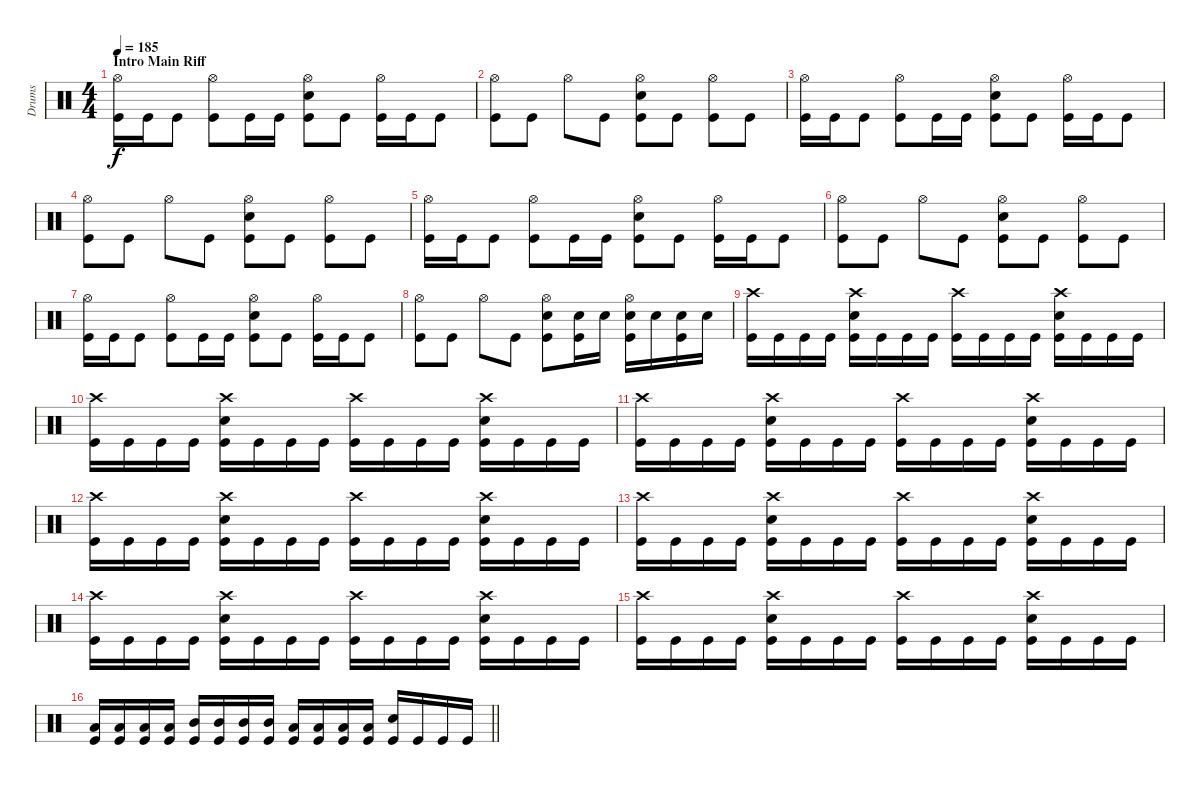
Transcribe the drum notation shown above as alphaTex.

\track ("Drums" "Drums") {instrument percussion}
\staff {score}
\articulation defaults
\ts (4 4)
\section ("" "Intro Main Riff")
\tempo 185
\clef neutral
\ks c
("Hi-Hat (open)" "Kick (hit)").16{dy f} "Kick (hit)".16 "Kick (hit)".8 ("Hi-Hat (open)" "Kick (hit)").8 "Kick (hit)".16 "Kick (hit)".16 ("Hi-Hat (open)" "Snare (hit) 2" "Kick (hit)").8 "Kick (hit)".8 ("Hi-Hat (open)" "Kick (hit)").16 "Kick (hit)".16 "Kick (hit)".8 |
("Hi-Hat (open)" "Kick (hit)").8 "Kick (hit)".8 "Hi-Hat (open)".8 "Kick (hit)".8 ("Hi-Hat (open)" "Snare (hit) 2" "Kick (hit)").8 "Kick (hit)".8 ("Hi-Hat (open)" "Kick (hit)").8 "Kick (hit)".8 |
("Hi-Hat (open)" "Kick (hit)").16 "Kick (hit)".16 "Kick (hit)".8 ("Hi-Hat (open)" "Kick (hit)").8 "Kick (hit)".16 "Kick (hit)".16 ("Hi-Hat (open)" "Snare (hit) 2" "Kick (hit)").8 "Kick (hit)".8 ("Hi-Hat (open)" "Kick (hit)").16 "Kick (hit)".16 "Kick (hit)".8 |
("Hi-Hat (open)" "Kick (hit)").8 "Kick (hit)".8 "Hi-Hat (open)".8 "Kick (hit)".8 ("Hi-Hat (open)" "Snare (hit) 2" "Kick (hit)").8 "Kick (hit)".8 ("Hi-Hat (open)" "Kick (hit)").8 "Kick (hit)".8 |
("Hi-Hat (open)" "Kick (hit)").16 "Kick (hit)".16 "Kick (hit)".8 ("Hi-Hat (open)" "Kick (hit)").8 "Kick (hit)".16 "Kick (hit)".16 ("Hi-Hat (open)" "Snare (hit) 2" "Kick (hit)").8 "Kick (hit)".8 ("Hi-Hat (open)" "Kick (hit)").16 "Kick (hit)".16 "Kick (hit)".8 |
("Hi-Hat (open)" "Kick (hit)").8 "Kick (hit)".8 "Hi-Hat (open)".8 "Kick (hit)".8 ("Hi-Hat (open)" "Snare (hit) 2" "Kick (hit)").8 "Kick (hit)".8 ("Hi-Hat (open)" "Kick (hit)").8 "Kick (hit)".8 |
("Hi-Hat (open)" "Kick (hit)").16 "Kick (hit)".16 "Kick (hit)".8 ("Hi-Hat (open)" "Kick (hit)").8 "Kick (hit)".16 "Kick (hit)".16 ("Hi-Hat (open)" "Snare (hit) 2" "Kick (hit)").8 "Kick (hit)".8 ("Hi-Hat (open)" "Kick (hit)").16 "Kick (hit)".16 "Kick (hit)".8 |
("Hi-Hat (open)" "Kick (hit)").8 "Kick (hit)".8 "Hi-Hat (open)".8 "Kick (hit)".8 ("Hi-Hat (open)" "Snare (hit) 2" "Kick (hit)").8 ("Snare (hit) 2" "Kick (hit)").16 "Snare (hit) 2".16 ("Hi-Hat (open)" "Snare (hit) 2" "Kick (hit)").16 "Snare (hit) 2".16 ("Snare (hit) 2" "Kick (hit)").16 "Snare (hit) 2".16 |
("Crash high (hit)" "Kick (hit)").16 "Kick (hit)".16 "Kick (hit)".16 "Kick (hit)".16 ("Crash high (hit)" "Snare (hit) 2" "Kick (hit)").16 "Kick (hit)".16 "Kick (hit)".16 "Kick (hit)".16 ("Crash high (hit)" "Kick (hit)").16 "Kick (hit)".16 "Kick (hit)".16 "Kick (hit)".16 ("Crash high (hit)" "Snare (hit) 2" "Kick (hit)").16 "Kick (hit)".16 "Kick (hit)".16 "Kick (hit)".16 |
("Crash high (hit)" "Kick (hit)").16 "Kick (hit)".16 "Kick (hit)".16 "Kick (hit)".16 ("Crash high (hit)" "Snare (hit) 2" "Kick (hit)").16 "Kick (hit)".16 "Kick (hit)".16 "Kick (hit)".16 ("Crash high (hit)" "Kick (hit)").16 "Kick (hit)".16 "Kick (hit)".16 "Kick (hit)".16 ("Crash high (hit)" "Snare (hit) 2" "Kick (hit)").16 "Kick (hit)".16 "Kick (hit)".16 "Kick (hit)".16 |
("Crash high (hit)" "Kick (hit)").16 "Kick (hit)".16 "Kick (hit)".16 "Kick (hit)".16 ("Crash high (hit)" "Snare (hit) 2" "Kick (hit)").16 "Kick (hit)".16 "Kick (hit)".16 "Kick (hit)".16 ("Crash high (hit)" "Kick (hit)").16 "Kick (hit)".16 "Kick (hit)".16 "Kick (hit)".16 ("Crash high (hit)" "Snare (hit) 2" "Kick (hit)").16 "Kick (hit)".16 "Kick (hit)".16 "Kick (hit)".16 |
("Crash high (hit)" "Kick (hit)").16 "Kick (hit)".16 "Kick (hit)".16 "Kick (hit)".16 ("Crash high (hit)" "Snare (hit) 2" "Kick (hit)").16 "Kick (hit)".16 "Kick (hit)".16 "Kick (hit)".16 ("Crash high (hit)" "Kick (hit)").16 "Kick (hit)".16 "Kick (hit)".16 "Kick (hit)".16 ("Crash high (hit)" "Snare (hit) 2" "Kick (hit)").16 "Kick (hit)".16 "Kick (hit)".16 "Kick (hit)".16 |
("Crash high (hit)" "Kick (hit)").16 "Kick (hit)".16 "Kick (hit)".16 "Kick (hit)".16 ("Crash high (hit)" "Snare (hit) 2" "Kick (hit)").16 "Kick (hit)".16 "Kick (hit)".16 "Kick (hit)".16 ("Crash high (hit)" "Kick (hit)").16 "Kick (hit)".16 "Kick (hit)".16 "Kick (hit)".16 ("Crash high (hit)" "Snare (hit) 2" "Kick (hit)").16 "Kick (hit)".16 "Kick (hit)".16 "Kick (hit)".16 |
("Crash high (hit)" "Kick (hit)").16 "Kick (hit)".16 "Kick (hit)".16 "Kick (hit)".16 ("Crash high (hit)" "Snare (hit) 2" "Kick (hit)").16 "Kick (hit)".16 "Kick (hit)".16 "Kick (hit)".16 ("Crash high (hit)" "Kick (hit)").16 "Kick (hit)".16 "Kick (hit)".16 "Kick (hit)".16 ("Crash high (hit)" "Snare (hit) 2" "Kick (hit)").16 "Kick (hit)".16 "Kick (hit)".16 "Kick (hit)".16 |
("Crash high (hit)" "Kick (hit)").16 "Kick (hit)".16 "Kick (hit)".16 "Kick (hit)".16 ("Crash high (hit)" "Snare (hit) 2" "Kick (hit)").16 "Kick (hit)".16 "Kick (hit)".16 "Kick (hit)".16 ("Crash high (hit)" "Kick (hit)").16 "Kick (hit)".16 "Kick (hit)".16 "Kick (hit)".16 ("Crash high (hit)" "Snare (hit) 2" "Kick (hit)").16 "Kick (hit)".16 "Kick (hit)".16 "Kick (hit)".16 |
\barLineRight lightlight
("Low Tom (hit)" "Kick (hit)").16 ("Low Tom (hit)" "Kick (hit)").16 ("Low Tom (hit)" "Kick (hit)").16 ("Low Tom (hit)" "Kick (hit)").16 ("Mid Tom (hit)" "Kick (hit)").16 ("Mid Tom (hit)" "Kick (hit)").16 ("Mid Tom (hit)" "Kick (hit)").16 ("Mid Tom (hit)" "Kick (hit)").16 ("Low Tom (hit)" "Kick (hit)").16 ("Low Tom (hit)" "Kick (hit)").16 ("Low Tom (hit)" "Kick (hit)").16 ("Low Tom (hit)" "Kick (hit)").16 ("Snare (hit) 2" "Kick (hit)").16 "Kick (hit)".16 "Kick (hit)".16 "Kick (hit)".16
